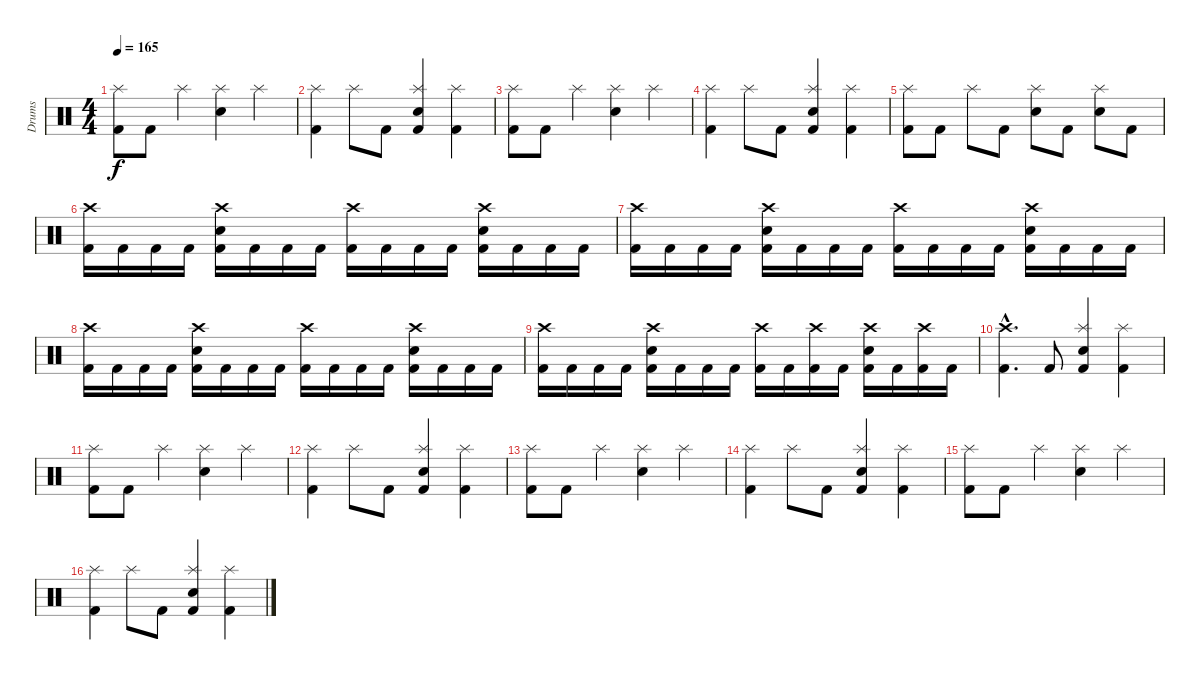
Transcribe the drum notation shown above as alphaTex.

\track ("Drums" "Drums") {instrument percussion}
\staff {score}
\articulation defaults
\ts (4 4)
\tempo 165
\clef neutral
\ks c
("Kick (hit) 2" "Splash (hit)").8{dy f} "Kick (hit) 2".8 "Splash (hit)".4 ("Snare (hit) 2" "Splash (hit)").4 "Splash (hit)".4 |
("Kick (hit) 2" "Splash (hit)").4 "Splash (hit)".8 "Kick (hit) 2".8 ("Kick (hit) 2" "Snare (hit) 2" "Splash (hit)").4 ("Kick (hit) 2" "Splash (hit)").4 |
("Kick (hit) 2" "Splash (hit)").8 "Kick (hit) 2".8 "Splash (hit)".4 ("Snare (hit) 2" "Splash (hit)").4 "Splash (hit)".4 |
("Kick (hit) 2" "Splash (hit)").4 "Splash (hit)".8 "Kick (hit) 2".8 ("Kick (hit) 2" "Snare (hit) 2" "Splash (hit)").4 ("Kick (hit) 2" "Splash (hit)").4 |
("Kick (hit) 2" "Splash (hit)").8 "Kick (hit) 2".8 "Splash (hit)".8 "Kick (hit) 2".8 ("Snare (hit) 2" "Splash (hit)").8 "Kick (hit) 2".8 ("Snare (hit) 2" "Splash (hit)").8 "Kick (hit) 2".8 |
("Kick (hit) 2" "Crash high (hit)").16 "Kick (hit) 2".16 "Kick (hit) 2".16 "Kick (hit) 2".16 ("Kick (hit) 2" "Snare (hit) 2" "Crash high (hit)").16 "Kick (hit) 2".16 "Kick (hit) 2".16 "Kick (hit) 2".16 ("Kick (hit) 2" "Crash high (hit)").16 "Kick (hit) 2".16 "Kick (hit) 2".16 "Kick (hit) 2".16 ("Kick (hit) 2" "Snare (hit) 2" "Crash high (hit)").16 "Kick (hit) 2".16 "Kick (hit) 2".16 "Kick (hit) 2".16 |
("Kick (hit) 2" "Crash high (hit)").16 "Kick (hit) 2".16 "Kick (hit) 2".16 "Kick (hit) 2".16 ("Kick (hit) 2" "Snare (hit) 2" "Crash high (hit)").16 "Kick (hit) 2".16 "Kick (hit) 2".16 "Kick (hit) 2".16 ("Kick (hit) 2" "Crash high (hit)").16 "Kick (hit) 2".16 "Kick (hit) 2".16 "Kick (hit) 2".16 ("Kick (hit) 2" "Snare (hit) 2" "Crash high (hit)").16 "Kick (hit) 2".16 "Kick (hit) 2".16 "Kick (hit) 2".16 |
("Kick (hit) 2" "Crash high (hit)").16 "Kick (hit) 2".16 "Kick (hit) 2".16 "Kick (hit) 2".16 ("Kick (hit) 2" "Snare (hit) 2" "Crash high (hit)").16 "Kick (hit) 2".16 "Kick (hit) 2".16 "Kick (hit) 2".16 ("Kick (hit) 2" "Crash high (hit)").16 "Kick (hit) 2".16 "Kick (hit) 2".16 "Kick (hit) 2".16 ("Kick (hit) 2" "Snare (hit) 2" "Crash high (hit)").16 "Kick (hit) 2".16 "Kick (hit) 2".16 "Kick (hit) 2".16 |
("Kick (hit) 2" "Crash high (hit)").16 "Kick (hit) 2".16 "Kick (hit) 2".16 "Kick (hit) 2".16 ("Kick (hit) 2" "Snare (hit) 2" "Crash high (hit)").16 "Kick (hit) 2".16 "Kick (hit) 2".16 "Kick (hit) 2".16 ("Kick (hit) 2" "Crash high (hit)").16 "Kick (hit) 2".16 ("Kick (hit) 2" "Crash high (hit)").16 "Kick (hit) 2".16 ("Kick (hit) 2" "Snare (hit) 2" "Crash high (hit)").16 "Kick (hit) 2".16 ("Kick (hit) 2" "Crash high (hit)").16 "Kick (hit) 2".16 |
("Kick (hit) 2"{hac} "Crash high (hit)"{hac}).4{d} "Kick (hit) 2".8 ("Kick (hit) 2" "Snare (hit) 2" "Splash (hit)").4 ("Kick (hit) 2" "Splash (hit)").4 |
("Kick (hit) 2" "Splash (hit)").8 "Kick (hit) 2".8 "Splash (hit)".4 ("Snare (hit) 2" "Splash (hit)").4 "Splash (hit)".4 |
("Kick (hit) 2" "Splash (hit)").4 "Splash (hit)".8 "Kick (hit) 2".8 ("Kick (hit) 2" "Snare (hit) 2" "Splash (hit)").4 ("Kick (hit) 2" "Splash (hit)").4 |
("Kick (hit) 2" "Splash (hit)").8 "Kick (hit) 2".8 "Splash (hit)".4 ("Snare (hit) 2" "Splash (hit)").4 "Splash (hit)".4 |
("Kick (hit) 2" "Splash (hit)").4 "Splash (hit)".8 "Kick (hit) 2".8 ("Kick (hit) 2" "Snare (hit) 2" "Splash (hit)").4 ("Kick (hit) 2" "Splash (hit)").4 |
("Kick (hit) 2" "Splash (hit)").8 "Kick (hit) 2".8 "Splash (hit)".4 ("Snare (hit) 2" "Splash (hit)").4 "Splash (hit)".4 |
("Kick (hit) 2" "Splash (hit)").4 "Splash (hit)".8 "Kick (hit) 2".8 ("Kick (hit) 2" "Snare (hit) 2" "Splash (hit)").4 ("Kick (hit) 2" "Splash (hit)").4
